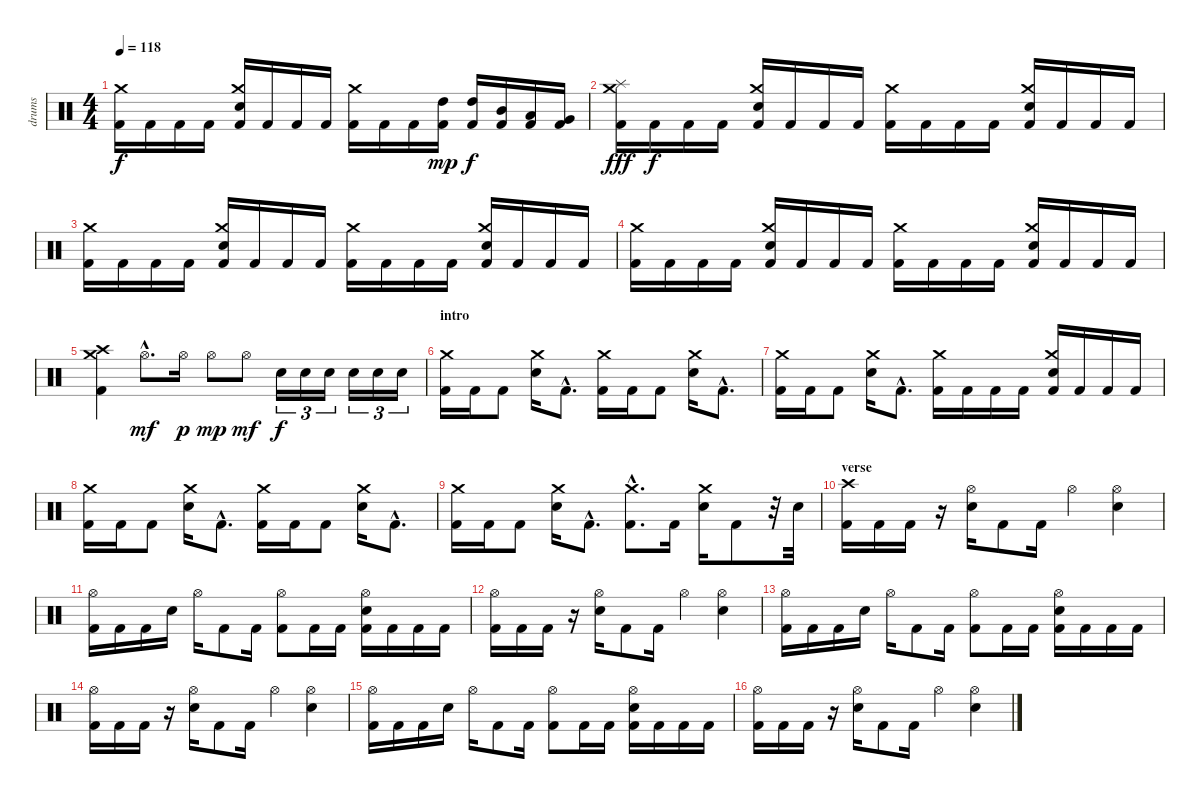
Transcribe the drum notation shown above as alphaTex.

\track ("drums" "drums") {instrument percussion}
\staff {score}
\articulation defaults
\ts (4 4)
\tempo 118
\clef neutral
\ks c
("Kick (hit) 2" "Crash medium (hit)").16{dy f} "Kick (hit) 2".16 "Kick (hit) 2".16 "Kick (hit) 2".16 ("Kick (hit) 2" "Crash medium (hit)" "Snare (hit) 2").16 "Kick (hit) 2".16 "Kick (hit) 2".16 "Kick (hit) 2".16 ("Kick (hit) 2" "Crash medium (hit)").16 "Kick (hit) 2".16 "Kick (hit) 2".16 ("Kick (hit) 2" "High Tom (hit)").16{dy mp} ("Kick (hit) 2" "High Tom (hit)").16{dy f} ("Kick (hit) 2" "Mid Tom (hit)").16 ("Kick (hit) 2" "Low Tom (hit)").16 ("Kick (hit) 2" "Very Low Tom (hit)").16 |
("Kick (hit) 2" "Crash medium (hit)" "Splash (hit)").16{dy fff} "Kick (hit) 2".16{dy f} "Kick (hit) 2".16 "Kick (hit) 2".16 ("Kick (hit) 2" "Crash medium (hit)" "Snare (hit) 2").16 "Kick (hit) 2".16 "Kick (hit) 2".16 "Kick (hit) 2".16 ("Kick (hit) 2" "Crash medium (hit)").16 "Kick (hit) 2".16 "Kick (hit) 2".16 "Kick (hit) 2".16 ("Kick (hit) 2" "Crash medium (hit)" "Snare (hit) 2").16 "Kick (hit) 2".16 "Kick (hit) 2".16 "Kick (hit) 2".16 |
("Kick (hit) 2" "Crash medium (hit)").16 "Kick (hit) 2".16 "Kick (hit) 2".16 "Kick (hit) 2".16 ("Kick (hit) 2" "Crash medium (hit)" "Snare (hit) 2").16 "Kick (hit) 2".16 "Kick (hit) 2".16 "Kick (hit) 2".16 ("Kick (hit) 2" "Crash medium (hit)").16 "Kick (hit) 2".16 "Kick (hit) 2".16 "Kick (hit) 2".16 ("Kick (hit) 2" "Crash medium (hit)" "Snare (hit) 2").16 "Kick (hit) 2".16 "Kick (hit) 2".16 "Kick (hit) 2".16 |
("Kick (hit) 2" "Crash medium (hit)").16 "Kick (hit) 2".16 "Kick (hit) 2".16 "Kick (hit) 2".16 ("Kick (hit) 2" "Crash medium (hit)" "Snare (hit) 2").16 "Kick (hit) 2".16 "Kick (hit) 2".16 "Kick (hit) 2".16 ("Kick (hit) 2" "Crash medium (hit)").16 "Kick (hit) 2".16 "Kick (hit) 2".16 "Kick (hit) 2".16 ("Kick (hit) 2" "Crash medium (hit)" "Snare (hit) 2").16 "Kick (hit) 2".16 "Kick (hit) 2".16 "Kick (hit) 2".16 |
("Kick (hit) 2" "Crash high (hit)" "Crash medium (hit)").4 "Hi-Hat (open)"{hac}.8{d dy mf} "Hi-Hat (open)".16{dy p} "Hi-Hat (open)".8{dy mp} "Hi-Hat (open)".8{dy mf} "Snare (hit) 2".16{tu (3 2) dy f} "Snare (hit) 2".16{tu (3 2)} "Snare (hit) 2".16{tu (3 2)} "Snare (hit) 2".16{tu (3 2)} "Snare (hit) 2".16{tu (3 2)} "Snare (hit) 2".16{tu (3 2)} |
\section ("" "intro")
("Kick (hit) 2" "Crash medium (hit)").16 "Kick (hit) 2".16 "Kick (hit) 2".8 ("Crash medium (hit)" "Snare (hit) 2").16 "Kick (hit) 2"{hac}.8{d} ("Kick (hit) 2" "Crash medium (hit)").16 "Kick (hit) 2".16 "Kick (hit) 2".8 ("Crash medium (hit)" "Snare (hit) 2").16 "Kick (hit) 2"{hac}.8{d} |
("Kick (hit) 2" "Crash medium (hit)").16 "Kick (hit) 2".16 "Kick (hit) 2".8 ("Crash medium (hit)" "Snare (hit) 2").16 "Kick (hit) 2"{hac}.8{d} ("Kick (hit) 2" "Crash medium (hit)").16 "Kick (hit) 2".16 "Kick (hit) 2".16 "Kick (hit) 2".16 ("Kick (hit) 2" "Crash medium (hit)" "Snare (hit) 2").16 "Kick (hit) 2".16 "Kick (hit) 2".16 "Kick (hit) 2".16 |
("Kick (hit) 2" "Crash medium (hit)").16 "Kick (hit) 2".16 "Kick (hit) 2".8 ("Crash medium (hit)" "Snare (hit) 2").16 "Kick (hit) 2"{hac}.8{d} ("Kick (hit) 2" "Crash medium (hit)").16 "Kick (hit) 2".16 "Kick (hit) 2".8 ("Crash medium (hit)" "Snare (hit) 2").16 "Kick (hit) 2"{hac}.8{d} |
("Kick (hit) 2" "Crash medium (hit)").16 "Kick (hit) 2".16 "Kick (hit) 2".8 ("Crash medium (hit)" "Snare (hit) 2").16 "Kick (hit) 2"{hac}.8{d} ("Kick (hit) 2"{hac} "Crash medium (hit)"{hac}).8{d} "Kick (hit) 2".16 ("Crash medium (hit)" "Snare (hit) 2").16 "Kick (hit) 2".8 r.32 "Snare (hit) 2".32 |
\section ("" "verse")
("Kick (hit) 2" "Crash high (hit)").16 "Kick (hit) 2".16 "Kick (hit) 2".16 r.16 ("Hi-Hat (open)" "Snare (hit) 2").16 "Kick (hit) 2".8 "Kick (hit) 2".16 "Hi-Hat (open)".4 ("Hi-Hat (open)" "Snare (hit) 2").4 |
("Kick (hit) 2" "Hi-Hat (open)").16 "Kick (hit) 2".16 "Kick (hit) 2".16 "Snare (hit) 2".16 "Hi-Hat (open)".16 "Kick (hit) 2".8 "Kick (hit) 2".16 ("Kick (hit) 2" "Hi-Hat (open)").8 "Kick (hit) 2".16 "Kick (hit) 2".16 ("Kick (hit) 2" "Hi-Hat (open)" "Snare (hit) 2").16 "Kick (hit) 2".16 "Kick (hit) 2".16 "Kick (hit) 2".16 |
("Kick (hit) 2" "Hi-Hat (open)").16 "Kick (hit) 2".16 "Kick (hit) 2".16 r.16 ("Hi-Hat (open)" "Snare (hit) 2").16 "Kick (hit) 2".8 "Kick (hit) 2".16 "Hi-Hat (open)".4 ("Hi-Hat (open)" "Snare (hit) 2").4 |
("Kick (hit) 2" "Hi-Hat (open)").16 "Kick (hit) 2".16 "Kick (hit) 2".16 "Snare (hit) 2".16 "Hi-Hat (open)".16 "Kick (hit) 2".8 "Kick (hit) 2".16 ("Kick (hit) 2" "Hi-Hat (open)").8 "Kick (hit) 2".16 "Kick (hit) 2".16 ("Kick (hit) 2" "Hi-Hat (open)" "Snare (hit) 2").16 "Kick (hit) 2".16 "Kick (hit) 2".16 "Kick (hit) 2".16 |
("Kick (hit) 2" "Hi-Hat (open)").16 "Kick (hit) 2".16 "Kick (hit) 2".16 r.16 ("Hi-Hat (open)" "Snare (hit) 2").16 "Kick (hit) 2".8 "Kick (hit) 2".16 "Hi-Hat (open)".4 ("Hi-Hat (open)" "Snare (hit) 2").4 |
("Kick (hit) 2" "Hi-Hat (open)").16 "Kick (hit) 2".16 "Kick (hit) 2".16 "Snare (hit) 2".16 "Hi-Hat (open)".16 "Kick (hit) 2".8 "Kick (hit) 2".16 ("Kick (hit) 2" "Hi-Hat (open)").8 "Kick (hit) 2".16 "Kick (hit) 2".16 ("Kick (hit) 2" "Hi-Hat (open)" "Snare (hit) 2").16 "Kick (hit) 2".16 "Kick (hit) 2".16 "Kick (hit) 2".16 |
("Kick (hit) 2" "Hi-Hat (open)").16 "Kick (hit) 2".16 "Kick (hit) 2".16 r.16 ("Hi-Hat (open)" "Snare (hit) 2").16 "Kick (hit) 2".8 "Kick (hit) 2".16 "Hi-Hat (open)".4 ("Hi-Hat (open)" "Snare (hit) 2").4
